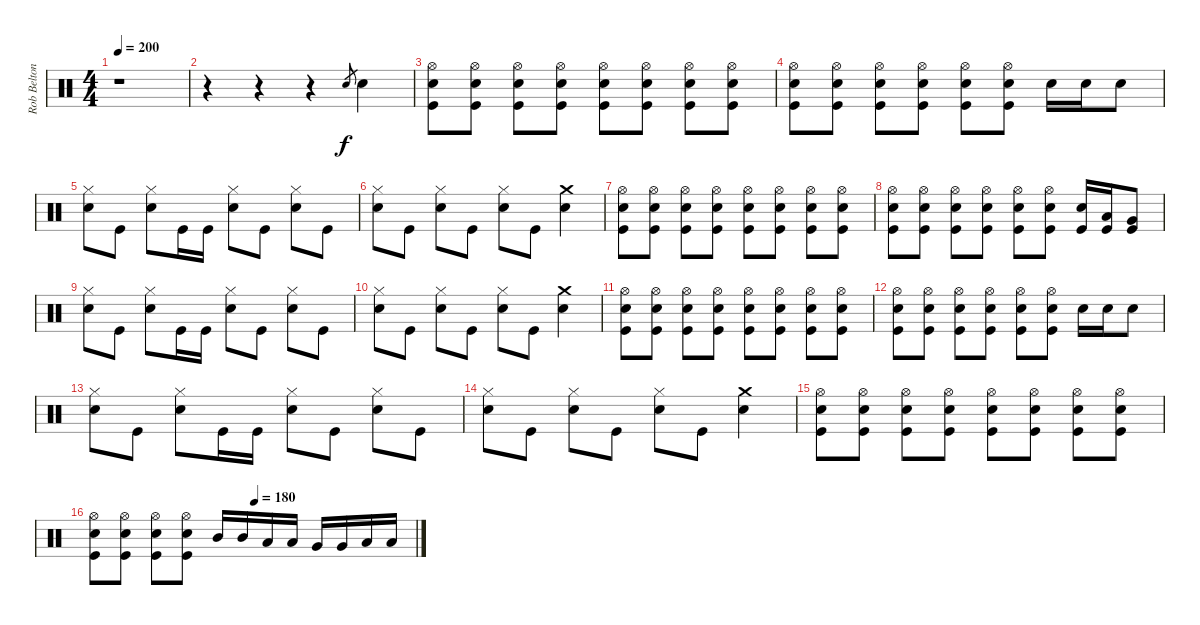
\track ("Rob Belton" "Rob Belton") {instrument percussion}
\staff {score}
\articulation defaults
\ts (4 4)
\tempo 200
\clef neutral
\ks c
r.1{dy f} |
r.4 r.4 r.4 "Snare (hit)".8{gr} "Snare (hit) 2".4 |
("Kick (hit)" "Snare (hit) 2" "Hi-Hat (open)").8 ("Kick (hit)" "Snare (hit) 2" "Hi-Hat (open)").8 ("Kick (hit)" "Snare (hit) 2" "Hi-Hat (open)").8 ("Kick (hit)" "Snare (hit) 2" "Hi-Hat (open)").8 ("Kick (hit)" "Snare (hit) 2" "Hi-Hat (open)").8 ("Kick (hit)" "Snare (hit) 2" "Hi-Hat (open)").8 ("Kick (hit)" "Snare (hit) 2" "Hi-Hat (open)").8 ("Kick (hit)" "Snare (hit) 2" "Hi-Hat (open)").8 |
("Kick (hit)" "Snare (hit) 2" "Hi-Hat (open)").8 ("Kick (hit)" "Snare (hit) 2" "Hi-Hat (open)").8 ("Kick (hit)" "Snare (hit) 2" "Hi-Hat (open)").8 ("Kick (hit)" "Snare (hit) 2" "Hi-Hat (open)").8 ("Kick (hit)" "Snare (hit) 2" "Hi-Hat (open)").8 ("Kick (hit)" "Snare (hit) 2" "Hi-Hat (open)").8 "Snare (hit) 2".16 "Snare (hit) 2".16 "Snare (hit) 2".8 |
("Snare (hit) 2" "Hi-Hat (closed)").8 "Kick (hit)".8 ("Snare (hit) 2" "Hi-Hat (closed)").8 "Kick (hit)".16 "Kick (hit)".16 ("Snare (hit) 2" "Hi-Hat (closed)").8 "Kick (hit)".8 ("Snare (hit) 2" "Hi-Hat (closed)").8 "Kick (hit)".8 |
("Snare (hit) 2" "Hi-Hat (closed)").8 "Kick (hit)".8 ("Snare (hit) 2" "Hi-Hat (closed)").8 "Kick (hit)".8 ("Snare (hit) 2" "Hi-Hat (closed)").8 "Kick (hit)".8 ("Snare (hit) 2" "Crash medium (hit)").4 |
("Kick (hit)" "Snare (hit) 2" "Hi-Hat (open)").8 ("Kick (hit)" "Snare (hit) 2" "Hi-Hat (open)").8 ("Kick (hit)" "Snare (hit) 2" "Hi-Hat (open)").8 ("Kick (hit)" "Snare (hit) 2" "Hi-Hat (open)").8 ("Kick (hit)" "Snare (hit) 2" "Hi-Hat (open)").8 ("Kick (hit)" "Snare (hit) 2" "Hi-Hat (open)").8 ("Kick (hit)" "Snare (hit) 2" "Hi-Hat (open)").8 ("Kick (hit)" "Snare (hit) 2" "Hi-Hat (open)").8 |
("Kick (hit)" "Snare (hit) 2" "Hi-Hat (open)").8 ("Kick (hit)" "Snare (hit) 2" "Hi-Hat (open)").8 ("Kick (hit)" "Snare (hit) 2" "Hi-Hat (open)").8 ("Kick (hit)" "Snare (hit) 2" "Hi-Hat (open)").8 ("Kick (hit)" "Snare (hit) 2" "Hi-Hat (open)").8 ("Kick (hit)" "Snare (hit) 2" "Hi-Hat (open)").8 ("Snare (hit) 2" "Kick (hit)").16 ("Kick (hit)" "Low Tom (hit)").16 ("Kick (hit)" "Very Low Tom (hit)").8 |
("Snare (hit) 2" "Hi-Hat (closed)").8 "Kick (hit)".8 ("Snare (hit) 2" "Hi-Hat (closed)").8 "Kick (hit)".16 "Kick (hit)".16 ("Snare (hit) 2" "Hi-Hat (closed)").8 "Kick (hit)".8 ("Snare (hit) 2" "Hi-Hat (closed)").8 "Kick (hit)".8 |
("Snare (hit) 2" "Hi-Hat (closed)").8 "Kick (hit)".8 ("Snare (hit) 2" "Hi-Hat (closed)").8 "Kick (hit)".8 ("Snare (hit) 2" "Hi-Hat (closed)").8 "Kick (hit)".8 ("Snare (hit) 2" "Crash medium (hit)").4 |
("Kick (hit)" "Snare (hit) 2" "Hi-Hat (open)").8 ("Kick (hit)" "Snare (hit) 2" "Hi-Hat (open)").8 ("Kick (hit)" "Snare (hit) 2" "Hi-Hat (open)").8 ("Kick (hit)" "Snare (hit) 2" "Hi-Hat (open)").8 ("Kick (hit)" "Snare (hit) 2" "Hi-Hat (open)").8 ("Kick (hit)" "Snare (hit) 2" "Hi-Hat (open)").8 ("Kick (hit)" "Snare (hit) 2" "Hi-Hat (open)").8 ("Kick (hit)" "Snare (hit) 2" "Hi-Hat (open)").8 |
("Kick (hit)" "Snare (hit) 2" "Hi-Hat (open)").8 ("Kick (hit)" "Snare (hit) 2" "Hi-Hat (open)").8 ("Kick (hit)" "Snare (hit) 2" "Hi-Hat (open)").8 ("Kick (hit)" "Snare (hit) 2" "Hi-Hat (open)").8 ("Kick (hit)" "Snare (hit) 2" "Hi-Hat (open)").8 ("Kick (hit)" "Snare (hit) 2" "Hi-Hat (open)").8 "Snare (hit) 2".16 "Snare (hit) 2".16 "Snare (hit) 2".8 |
("Snare (hit) 2" "Hi-Hat (closed)").8 "Kick (hit)".8 ("Snare (hit) 2" "Hi-Hat (closed)").8 "Kick (hit)".16 "Kick (hit)".16 ("Snare (hit) 2" "Hi-Hat (closed)").8 "Kick (hit)".8 ("Snare (hit) 2" "Hi-Hat (closed)").8 "Kick (hit)".8 |
("Snare (hit) 2" "Hi-Hat (closed)").8 "Kick (hit)".8 ("Snare (hit) 2" "Hi-Hat (closed)").8 "Kick (hit)".8 ("Snare (hit) 2" "Hi-Hat (closed)").8 "Kick (hit)".8 ("Snare (hit) 2" "Crash medium (hit)").4 |
("Kick (hit)" "Snare (hit) 2" "Hi-Hat (open)").8 ("Kick (hit)" "Snare (hit) 2" "Hi-Hat (open)").8 ("Kick (hit)" "Snare (hit) 2" "Hi-Hat (open)").8 ("Kick (hit)" "Snare (hit) 2" "Hi-Hat (open)").8 ("Kick (hit)" "Snare (hit) 2" "Hi-Hat (open)").8 ("Kick (hit)" "Snare (hit) 2" "Hi-Hat (open)").8 ("Kick (hit)" "Snare (hit) 2" "Hi-Hat (open)").8 ("Kick (hit)" "Snare (hit) 2" "Hi-Hat (open)").8 |
\tempo (180 0.5)
("Kick (hit)" "Snare (hit) 2" "Hi-Hat (open)").8 ("Kick (hit)" "Snare (hit) 2" "Hi-Hat (open)").8 ("Kick (hit)" "Snare (hit) 2" "Hi-Hat (open)").8 ("Kick (hit)" "Snare (hit) 2" "Hi-Hat (open)").8 "Mid Tom (hit)".16 "Mid Tom (hit)".16 "Low Tom (hit)".16 "Low Tom (hit)".16 "Very Low Tom (hit)".16 "Very Low Tom (hit)".16 "Low Floor Tom (hit)".16 "Low Floor Tom (hit)".16
